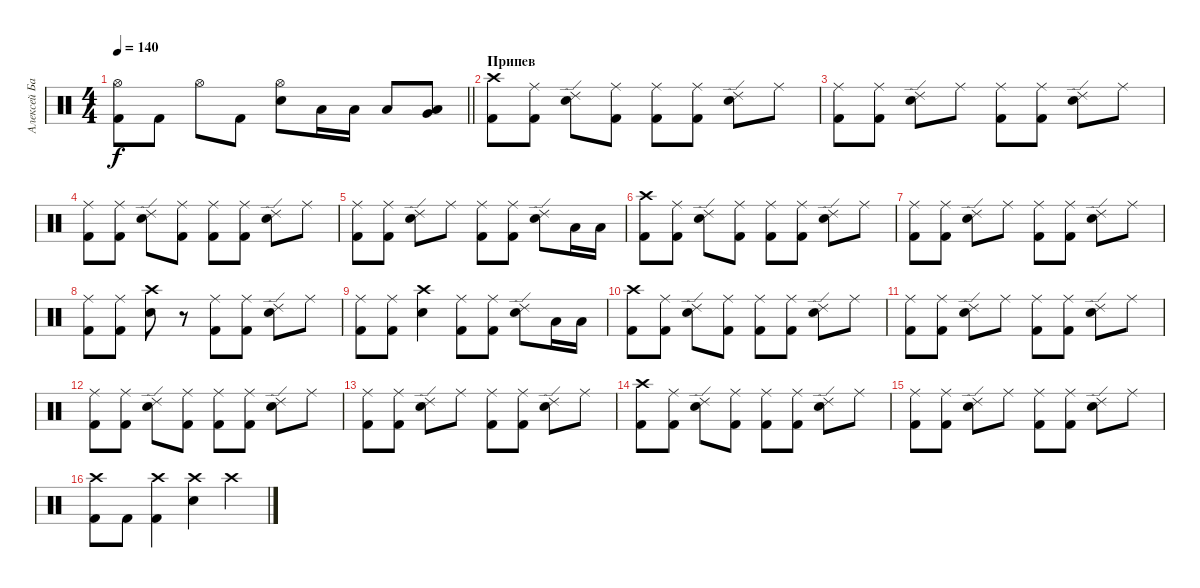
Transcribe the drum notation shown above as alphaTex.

\track ("Алексей Барзилович" "Алексей Ба") {instrument percussion}
\staff {score}
\articulation defaults
\ts (4 4)
\tempo 140
\clef neutral
\barLineRight lightlight
\ks c
("Hi-Hat (open)" "Kick (hit) 2").8{dy f} "Kick (hit) 2".8 "Hi-Hat (open)".8 "Kick (hit) 2".8 ("Hi-Hat (open)" "Electric Snare (hit)").8 "Low Tom (hit)".16 "Low Tom (hit)".16 "Low Tom (hit)".8 ("Low Floor Tom (hit)" "Very Low Tom (hit)").8 |
\section ("" "Припев")
("Crash high (hit)" "Kick (hit) 2").8 ("Ride (middle)" "Kick (hit) 2").8 ("Ride (edge) 2" "Electric Snare (hit)").8 ("Ride (middle)" "Kick (hit) 2").8 ("Ride (middle)" "Kick (hit) 2").8 ("Ride (middle)" "Kick (hit) 2").8 ("Ride (edge) 2" "Electric Snare (hit)").8 "Ride (middle)".8 |
("Ride (middle)" "Kick (hit) 2").8 ("Ride (middle)" "Kick (hit) 2").8 ("Ride (edge) 2" "Electric Snare (hit)").8 "Ride (middle)".8 ("Ride (middle)" "Kick (hit) 2").8 ("Ride (middle)" "Kick (hit) 2").8 ("Ride (edge) 2" "Electric Snare (hit)").8 "Ride (middle)".8 |
("Ride (middle)" "Kick (hit) 2").8 ("Ride (middle)" "Kick (hit) 2").8 ("Ride (edge) 2" "Electric Snare (hit)").8 ("Ride (middle)" "Kick (hit) 2").8 ("Ride (middle)" "Kick (hit) 2").8 ("Ride (middle)" "Kick (hit) 2").8 ("Ride (edge) 2" "Electric Snare (hit)").8 "Ride (middle)".8 |
("Ride (middle)" "Kick (hit) 2").8 ("Ride (middle)" "Kick (hit) 2").8 ("Ride (edge) 2" "Electric Snare (hit)").8 "Ride (middle)".8 ("Ride (middle)" "Kick (hit) 2").8 ("Ride (middle)" "Kick (hit) 2").8 ("Ride (edge) 2" "Electric Snare (hit)").8 "Low Tom (hit)".16 "Low Tom (hit)".16 |
("Crash high (hit)" "Kick (hit) 2").8 ("Ride (middle)" "Kick (hit) 2").8 ("Ride (edge) 2" "Electric Snare (hit)").8 ("Ride (middle)" "Kick (hit) 2").8 ("Ride (middle)" "Kick (hit) 2").8 ("Ride (middle)" "Kick (hit) 2").8 ("Ride (edge) 2" "Electric Snare (hit)").8 "Ride (middle)".8 |
("Ride (middle)" "Kick (hit) 2").8 ("Ride (middle)" "Kick (hit) 2").8 ("Ride (edge) 2" "Electric Snare (hit)").8 "Ride (middle)".8 ("Ride (middle)" "Kick (hit) 2").8 ("Ride (middle)" "Kick (hit) 2").8 ("Ride (edge) 2" "Electric Snare (hit)").8 "Ride (middle)".8 |
("Ride (middle)" "Kick (hit) 2").8 ("Ride (middle)" "Kick (hit) 2").8 ("Crash high (hit)" "Electric Snare (hit)").8 r.8 ("Ride (middle)" "Kick (hit) 2").8 ("Ride (middle)" "Kick (hit) 2").8 ("Ride (edge) 2" "Electric Snare (hit)").8 "Ride (middle)".8 |
("Ride (middle)" "Kick (hit) 2").8 ("Ride (middle)" "Kick (hit) 2").8 ("Crash high (hit)" "Electric Snare (hit)").4 ("Ride (middle)" "Kick (hit) 2").8 ("Ride (middle)" "Kick (hit) 2").8 ("Ride (edge) 2" "Electric Snare (hit)").8 "Low Tom (hit)".16 "Low Tom (hit)".16 |
("Crash high (hit)" "Kick (hit) 2").8 ("Ride (middle)" "Kick (hit) 2").8 ("Ride (edge) 2" "Electric Snare (hit)").8 ("Ride (middle)" "Kick (hit) 2").8 ("Ride (middle)" "Kick (hit) 2").8 ("Ride (middle)" "Kick (hit) 2").8 ("Ride (edge) 2" "Electric Snare (hit)").8 "Ride (middle)".8 |
("Ride (middle)" "Kick (hit) 2").8 ("Ride (middle)" "Kick (hit) 2").8 ("Ride (edge) 2" "Electric Snare (hit)").8 "Ride (middle)".8 ("Ride (middle)" "Kick (hit) 2").8 ("Ride (middle)" "Kick (hit) 2").8 ("Ride (edge) 2" "Electric Snare (hit)").8 "Ride (middle)".8 |
("Ride (middle)" "Kick (hit) 2").8 ("Ride (middle)" "Kick (hit) 2").8 ("Ride (edge) 2" "Electric Snare (hit)").8 ("Ride (middle)" "Kick (hit) 2").8 ("Ride (middle)" "Kick (hit) 2").8 ("Ride (middle)" "Kick (hit) 2").8 ("Ride (edge) 2" "Electric Snare (hit)").8 "Ride (middle)".8 |
("Ride (middle)" "Kick (hit) 2").8 ("Ride (middle)" "Kick (hit) 2").8 ("Ride (edge) 2" "Electric Snare (hit)").8 "Ride (middle)".8 ("Ride (middle)" "Kick (hit) 2").8 ("Ride (middle)" "Kick (hit) 2").8 ("Ride (edge) 2" "Electric Snare (hit)").8 "Ride (middle)".8 |
("Crash high (hit)" "Kick (hit) 2").8 ("Ride (middle)" "Kick (hit) 2").8 ("Ride (edge) 2" "Electric Snare (hit)").8 ("Ride (middle)" "Kick (hit) 2").8 ("Ride (middle)" "Kick (hit) 2").8 ("Ride (middle)" "Kick (hit) 2").8 ("Ride (edge) 2" "Electric Snare (hit)").8 "Ride (middle)".8 |
("Ride (middle)" "Kick (hit) 2").8 ("Ride (middle)" "Kick (hit) 2").8 ("Ride (edge) 2" "Electric Snare (hit)").8 "Ride (middle)".8 ("Ride (middle)" "Kick (hit) 2").8 ("Ride (middle)" "Kick (hit) 2").8 ("Ride (edge) 2" "Electric Snare (hit)").8 "Ride (middle)".8 |
("Crash high (hit)" "Kick (hit) 2").8 "Kick (hit) 2".8 ("Crash high (hit)" "Kick (hit) 2").4 ("Crash high (hit)" "Electric Snare (hit)").4 "Crash high (hit)".4
